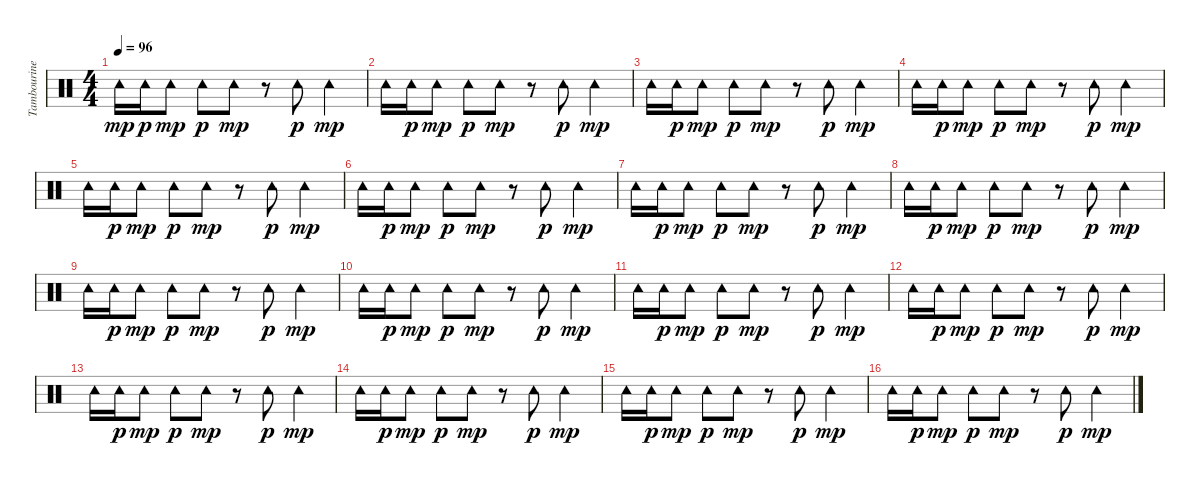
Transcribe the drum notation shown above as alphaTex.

\track ("Tambourine" "Tambourine") {instrument percussion}
\staff {score}
\articulation defaults
\ts (4 4)
\tempo 96
\clef neutral
\ks c "Tambourine (hit)".16{dy mp} "Tambourine (hit)".16{dy p} "Tambourine (hit)".8{dy mp} "Tambourine (hit)".8{dy p} "Tambourine (hit)".8{dy mp}
r.8 "Tambourine (hit)".8{dy p} "Tambourine (hit)".4{dy mp} |
"Tambourine (hit)".16 "Tambourine (hit)".16{dy p} "Tambourine (hit)".8{dy mp} "Tambourine (hit)".8{dy p} "Tambourine (hit)".8{dy mp} r.8 "Tambourine (hit)".8{dy p} "Tambourine (hit)".4{dy mp} |
"Tambourine (hit)".16 "Tambourine (hit)".16{dy p} "Tambourine (hit)".8{dy mp} "Tambourine (hit)".8{dy p} "Tambourine (hit)".8{dy mp} r.8 "Tambourine (hit)".8{dy p} "Tambourine (hit)".4{dy mp} |
"Tambourine (hit)".16 "Tambourine (hit)".16{dy p} "Tambourine (hit)".8{dy mp} "Tambourine (hit)".8{dy p} "Tambourine (hit)".8{dy mp} r.8 "Tambourine (hit)".8{dy p} "Tambourine (hit)".4{dy mp} |
"Tambourine (hit)".16 "Tambourine (hit)".16{dy p} "Tambourine (hit)".8{dy mp} "Tambourine (hit)".8{dy p} "Tambourine (hit)".8{dy mp} r.8 "Tambourine (hit)".8{dy p} "Tambourine (hit)".4{dy mp} |
"Tambourine (hit)".16 "Tambourine (hit)".16{dy p} "Tambourine (hit)".8{dy mp} "Tambourine (hit)".8{dy p} "Tambourine (hit)".8{dy mp} r.8 "Tambourine (hit)".8{dy p} "Tambourine (hit)".4{dy mp} |
"Tambourine (hit)".16 "Tambourine (hit)".16{dy p} "Tambourine (hit)".8{dy mp} "Tambourine (hit)".8{dy p} "Tambourine (hit)".8{dy mp} r.8 "Tambourine (hit)".8{dy p} "Tambourine (hit)".4{dy mp} |
"Tambourine (hit)".16 "Tambourine (hit)".16{dy p} "Tambourine (hit)".8{dy mp} "Tambourine (hit)".8{dy p} "Tambourine (hit)".8{dy mp} r.8 "Tambourine (hit)".8{dy p} "Tambourine (hit)".4{dy mp} |
"Tambourine (hit)".16 "Tambourine (hit)".16{dy p} "Tambourine (hit)".8{dy mp} "Tambourine (hit)".8{dy p} "Tambourine (hit)".8{dy mp} r.8 "Tambourine (hit)".8{dy p} "Tambourine (hit)".4{dy mp} |
"Tambourine (hit)".16 "Tambourine (hit)".16{dy p} "Tambourine (hit)".8{dy mp} "Tambourine (hit)".8{dy p} "Tambourine (hit)".8{dy mp} r.8 "Tambourine (hit)".8{dy p} "Tambourine (hit)".4{dy mp} |
"Tambourine (hit)".16 "Tambourine (hit)".16{dy p} "Tambourine (hit)".8{dy mp} "Tambourine (hit)".8{dy p} "Tambourine (hit)".8{dy mp} r.8 "Tambourine (hit)".8{dy p} "Tambourine (hit)".4{dy mp} |
"Tambourine (hit)".16 "Tambourine (hit)".16{dy p} "Tambourine (hit)".8{dy mp} "Tambourine (hit)".8{dy p} "Tambourine (hit)".8{dy mp} r.8 "Tambourine (hit)".8{dy p} "Tambourine (hit)".4{dy mp} |
"Tambourine (hit)".16 "Tambourine (hit)".16{dy p} "Tambourine (hit)".8{dy mp} "Tambourine (hit)".8{dy p} "Tambourine (hit)".8{dy mp} r.8 "Tambourine (hit)".8{dy p} "Tambourine (hit)".4{dy mp} |
"Tambourine (hit)".16 "Tambourine (hit)".16{dy p} "Tambourine (hit)".8{dy mp} "Tambourine (hit)".8{dy p} "Tambourine (hit)".8{dy mp} r.8 "Tambourine (hit)".8{dy p} "Tambourine (hit)".4{dy mp} |
"Tambourine (hit)".16 "Tambourine (hit)".16{dy p} "Tambourine (hit)".8{dy mp} "Tambourine (hit)".8{dy p} "Tambourine (hit)".8{dy mp} r.8 "Tambourine (hit)".8{dy p} "Tambourine (hit)".4{dy mp} |
"Tambourine (hit)".16 "Tambourine (hit)".16{dy p} "Tambourine (hit)".8{dy mp} "Tambourine (hit)".8{dy p} "Tambourine (hit)".8{dy mp} r.8 "Tambourine (hit)".8{dy p} "Tambourine (hit)".4{dy mp}
